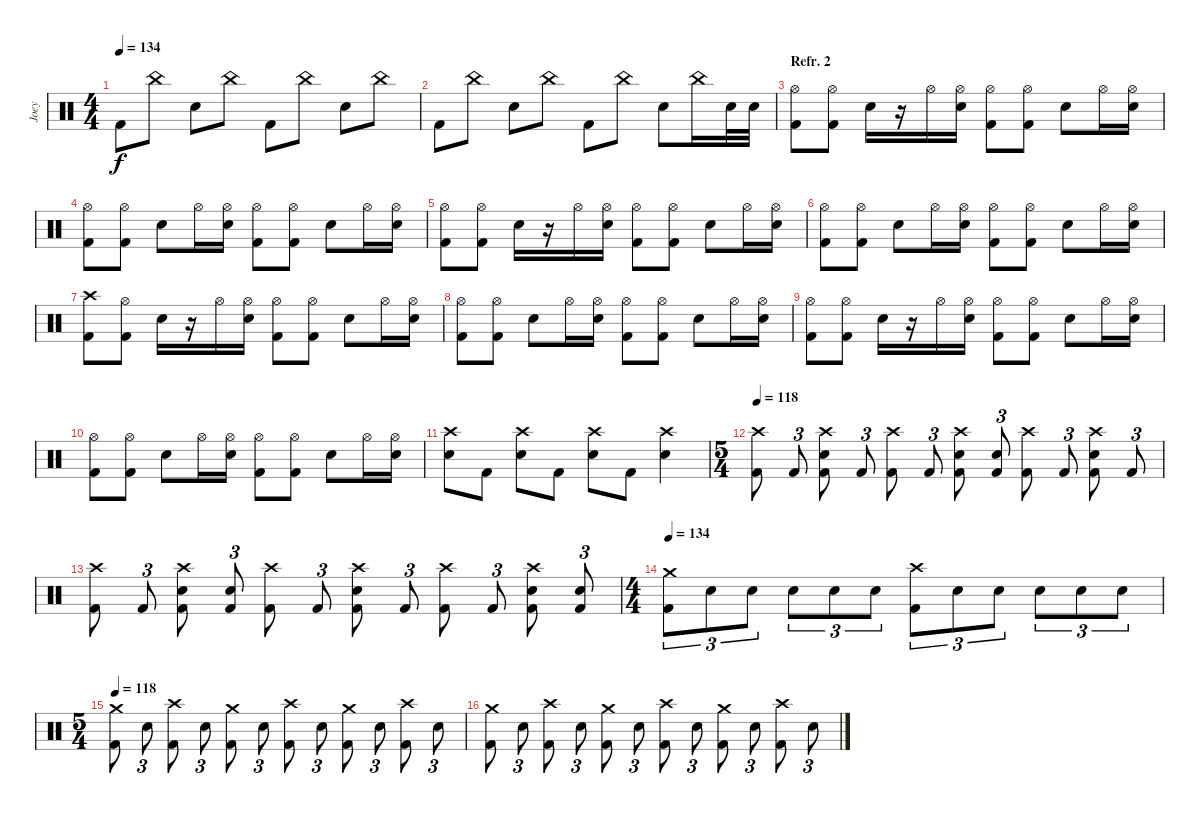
\track ("Joey" "Joey") {instrument percussion}
\staff {score}
\articulation defaults
\ts (4 4)
\tempo 134
\clef neutral
\ks c "Kick (hit) 2".8{dy f} "China (hit)".8 "Electric Snare (hit)".8 "China (hit)".8 "Kick (hit) 2".8 "China (hit)".8 "Electric Snare (hit)".8 "China (hit)".8
|
"Kick (hit) 2".8 "China (hit)".8 "Electric Snare (hit)".8 "China (hit)".8 "Kick (hit) 2".8 "China (hit)".8 "Electric Snare (hit)".8 "China (hit)".16 "Electric Snare (hit)".32 "Electric Snare (hit)".32 |
\section ("" "Refr. 2")
("Hi-Hat (open)" "Kick (hit) 2").8 ("Hi-Hat (open)" "Kick (hit) 2").8 "Electric Snare (hit)".16 r.16 "Hi-Hat (open)".16 ("Hi-Hat (open)" "Electric Snare (hit)").16 ("Hi-Hat (open)" "Kick (hit) 2").8 ("Hi-Hat (open)" "Kick (hit) 2").8 "Electric Snare (hit)".8 "Hi-Hat (open)".16 ("Hi-Hat (open)" "Electric Snare (hit)").16 |
\section ("" "")
("Hi-Hat (open)" "Kick (hit) 2").8 ("Hi-Hat (open)" "Kick (hit) 2").8 "Electric Snare (hit)".8 "Hi-Hat (open)".16 ("Hi-Hat (open)" "Electric Snare (hit)").16 ("Hi-Hat (open)" "Kick (hit) 2").8 ("Hi-Hat (open)" "Kick (hit) 2").8 "Electric Snare (hit)".8 "Hi-Hat (open)".16 ("Hi-Hat (open)" "Electric Snare (hit)").16 |
\section ("" "")
("Hi-Hat (open)" "Kick (hit) 2").8 ("Hi-Hat (open)" "Kick (hit) 2").8 "Electric Snare (hit)".16 r.16 "Hi-Hat (open)".16 ("Hi-Hat (open)" "Electric Snare (hit)").16 ("Hi-Hat (open)" "Kick (hit) 2").8 ("Hi-Hat (open)" "Kick (hit) 2").8 "Electric Snare (hit)".8 "Hi-Hat (open)".16 ("Hi-Hat (open)" "Electric Snare (hit)").16 |
("Hi-Hat (open)" "Kick (hit) 2").8 ("Hi-Hat (open)" "Kick (hit) 2").8 "Electric Snare (hit)".8 "Hi-Hat (open)".16 ("Hi-Hat (open)" "Electric Snare (hit)").16 ("Hi-Hat (open)" "Kick (hit) 2").8 ("Hi-Hat (open)" "Kick (hit) 2").8 "Electric Snare (hit)".8 "Hi-Hat (open)".16 ("Hi-Hat (open)" "Electric Snare (hit)").16 |
("Crash high (hit)" "Kick (hit) 2").8 ("Hi-Hat (open)" "Kick (hit) 2").8 "Electric Snare (hit)".16 r.16 "Hi-Hat (open)".16 ("Hi-Hat (open)" "Electric Snare (hit)").16 ("Hi-Hat (open)" "Kick (hit) 2").8 ("Hi-Hat (open)" "Kick (hit) 2").8 "Electric Snare (hit)".8 "Hi-Hat (open)".16 ("Hi-Hat (open)" "Electric Snare (hit)").16 |
("Hi-Hat (open)" "Kick (hit) 2").8 ("Hi-Hat (open)" "Kick (hit) 2").8 "Electric Snare (hit)".8 "Hi-Hat (open)".16 ("Hi-Hat (open)" "Electric Snare (hit)").16 ("Hi-Hat (open)" "Kick (hit) 2").8 ("Hi-Hat (open)" "Kick (hit) 2").8 "Electric Snare (hit)".8 "Hi-Hat (open)".16 ("Hi-Hat (open)" "Electric Snare (hit)").16 |
("Hi-Hat (open)" "Kick (hit) 2").8 ("Hi-Hat (open)" "Kick (hit) 2").8 "Electric Snare (hit)".16 r.16 "Hi-Hat (open)".16 ("Hi-Hat (open)" "Electric Snare (hit)").16 ("Hi-Hat (open)" "Kick (hit) 2").8 ("Hi-Hat (open)" "Kick (hit) 2").8 "Electric Snare (hit)".8 "Hi-Hat (open)".16 ("Hi-Hat (open)" "Electric Snare (hit)").16 |
("Hi-Hat (open)" "Kick (hit) 2").8 ("Hi-Hat (open)" "Kick (hit) 2").8 "Electric Snare (hit)".8 "Hi-Hat (open)".16 ("Hi-Hat (open)" "Electric Snare (hit)").16 ("Hi-Hat (open)" "Kick (hit) 2").8 ("Hi-Hat (open)" "Kick (hit) 2").8 "Electric Snare (hit)".8 "Hi-Hat (open)".16 ("Hi-Hat (open)" "Electric Snare (hit)").16 |
("Crash high (hit)" "Electric Snare (hit)").8 "Kick (hit) 2".8 ("Crash high (hit)" "Electric Snare (hit)").8 "Kick (hit) 2".8 ("Crash high (hit)" "Electric Snare (hit)").8 "Kick (hit) 2".8 ("Crash high (hit)" "Electric Snare (hit)").4 |
\ts (5 4)
\tempo 118
("Crash high (hit)" "Kick (hit) 2").8 "Kick (hit) 2".8{tu (3 2)} ("Crash high (hit)" "Electric Snare (hit)" "Kick (hit) 2").8 "Kick (hit) 2".8{tu (3 2)} ("Crash high (hit)" "Kick (hit) 2").8 "Kick (hit) 2".8{tu (3 2)} ("Crash high (hit)" "Electric Snare (hit)" "Kick (hit) 2").8 ("Electric Snare (hit)" "Kick (hit) 2").8{tu (3 2)} ("Crash high (hit)" "Kick (hit) 2").8 "Kick (hit) 2".8{tu (3 2)} ("Crash high (hit)" "Electric Snare (hit)" "Kick (hit) 2").8 "Kick (hit) 2".8{tu (3 2)} |
("Crash high (hit)" "Kick (hit) 2").8 "Kick (hit) 2".8{tu (3 2)} ("Crash high (hit)" "Electric Snare (hit)" "Kick (hit) 2").8 ("Electric Snare (hit)" "Kick (hit) 2").8{tu (3 2)} ("Crash high (hit)" "Kick (hit) 2").8 "Kick (hit) 2".8{tu (3 2)} ("Crash high (hit)" "Electric Snare (hit)" "Kick (hit) 2").8 "Kick (hit) 2".8{tu (3 2)} ("Crash high (hit)" "Kick (hit) 2").8 "Kick (hit) 2".8{tu (3 2)} ("Crash high (hit)" "Electric Snare (hit)" "Kick (hit) 2").8 ("Electric Snare (hit)" "Kick (hit) 2").8{tu (3 2)} |
\ts (4 4)
\tempo 134
("Crash medium (hit)" "Kick (hit) 2").8{tu (3 2)} "Electric Snare (hit)".8{tu (3 2)} "Electric Snare (hit)".8{tu (3 2)} "Electric Snare (hit)".8{tu (3 2)} "Electric Snare (hit)".8{tu (3 2)} "Electric Snare (hit)".8{tu (3 2)} ("Crash high (hit)" "Kick (hit) 2").8{tu (3 2)} "Electric Snare (hit)".8{tu (3 2)} "Electric Snare (hit)".8{tu (3 2)} "Electric Snare (hit)".8{tu (3 2)} "Electric Snare (hit)".8{tu (3 2)} "Electric Snare (hit)".8{tu (3 2)} |
\ts (5 4)
\tempo 118
("Crash medium (hit)" "Kick (hit) 2").8 "Electric Snare (hit)".8{tu (3 2)} ("Crash high (hit)" "Kick (hit) 2").8 "Electric Snare (hit)".8{tu (3 2)} ("Crash medium (hit)" "Kick (hit) 2").8 "Electric Snare (hit)".8{tu (3 2)} ("Crash high (hit)" "Kick (hit) 2").8 "Electric Snare (hit)".8{tu (3 2)} ("Crash medium (hit)" "Kick (hit) 2").8 "Electric Snare (hit)".8{tu (3 2)} ("Crash high (hit)" "Kick (hit) 2").8 "Electric Snare (hit)".8{tu (3 2)} |
("Crash medium (hit)" "Kick (hit) 2").8 "Electric Snare (hit)".8{tu (3 2)} ("Crash high (hit)" "Kick (hit) 2").8 "Electric Snare (hit)".8{tu (3 2)} ("Crash medium (hit)" "Kick (hit) 2").8 "Electric Snare (hit)".8{tu (3 2)} ("Crash high (hit)" "Kick (hit) 2").8 "Electric Snare (hit)".8{tu (3 2)} ("Crash medium (hit)" "Kick (hit) 2").8 "Electric Snare (hit)".8{tu (3 2)} ("Crash high (hit)" "Kick (hit) 2").8 "Electric Snare (hit)".8{tu (3 2)}
